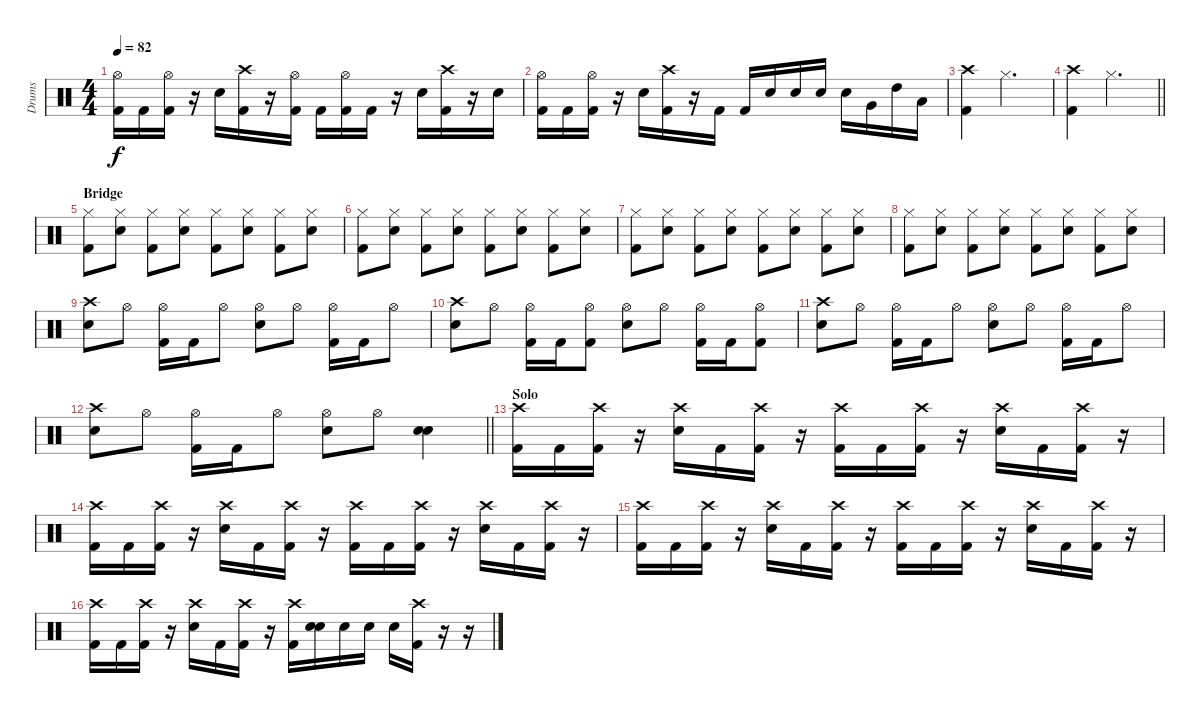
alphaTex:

\track ("Drums" "Drums") {instrument percussion}
\staff {score}
\articulation defaults
\ts (4 4)
\tempo 82
\clef neutral
\ks c
("Hi-Hat (open)" "Kick (hit) 2").16{dy f} "Kick (hit) 2".16 ("Hi-Hat (open)" "Kick (hit) 2").16 r.16 "Electric Snare (hit)".16 ("Crash high (hit)" "Kick (hit) 2").16 r.16 ("Hi-Hat (open)" "Kick (hit) 2").16 "Kick (hit) 2".16 ("Hi-Hat (open)" "Kick (hit) 2").16 "Kick (hit) 2".16 r.16 "Electric Snare (hit)".16 ("Crash high (hit)" "Kick (hit) 2").16 r.16 "Electric Snare (hit)".16 |
("Hi-Hat (open)" "Kick (hit) 2").16 "Kick (hit) 2".16 ("Hi-Hat (open)" "Kick (hit) 2").16 r.16 "Electric Snare (hit)".16 ("Crash high (hit)" "Kick (hit) 2").16 r.16 "Kick (hit) 2".16 "Kick (hit) 2".16 "Electric Snare (hit)".16 "Electric Snare (hit)".16 "Electric Snare (hit)".16 "Electric Snare (hit)".16 "Very Low Tom (hit)".16 "High Tom (hit)".16 "Low Floor Tom (hit)".16 |
("Crash high (hit)" "Kick (hit) 2").4 "Hi-Hat (closed)".2{d} |
\barLineRight lightlight
("Crash high (hit)" "Kick (hit) 2").4 "Hi-Hat (closed)".2{d} |
\section ("" "Bridge")
("Hi-Hat (closed)" "Kick (hit) 2").8 ("Hi-Hat (closed)" "Electric Snare (hit)").8 ("Hi-Hat (closed)" "Kick (hit) 2").8 ("Hi-Hat (closed)" "Electric Snare (hit)").8 ("Hi-Hat (closed)" "Kick (hit) 2").8 ("Hi-Hat (closed)" "Electric Snare (hit)").8 ("Hi-Hat (closed)" "Kick (hit) 2").8 ("Hi-Hat (closed)" "Electric Snare (hit)").8 |
("Hi-Hat (closed)" "Kick (hit) 2").8 ("Hi-Hat (closed)" "Electric Snare (hit)").8 ("Hi-Hat (closed)" "Kick (hit) 2").8 ("Hi-Hat (closed)" "Electric Snare (hit)").8 ("Hi-Hat (closed)" "Kick (hit) 2").8 ("Hi-Hat (closed)" "Electric Snare (hit)").8 ("Hi-Hat (closed)" "Kick (hit) 2").8 ("Hi-Hat (closed)" "Electric Snare (hit)").8 |
("Hi-Hat (closed)" "Kick (hit) 2").8 ("Hi-Hat (closed)" "Electric Snare (hit)").8 ("Hi-Hat (closed)" "Kick (hit) 2").8 ("Hi-Hat (closed)" "Electric Snare (hit)").8 ("Hi-Hat (closed)" "Kick (hit) 2").8 ("Hi-Hat (closed)" "Electric Snare (hit)").8 ("Hi-Hat (closed)" "Kick (hit) 2").8 ("Hi-Hat (closed)" "Electric Snare (hit)").8 |
("Hi-Hat (closed)" "Kick (hit) 2").8 ("Hi-Hat (closed)" "Electric Snare (hit)").8 ("Hi-Hat (closed)" "Kick (hit) 2").8 ("Hi-Hat (closed)" "Electric Snare (hit)").8 ("Hi-Hat (closed)" "Kick (hit) 2").8 ("Hi-Hat (closed)" "Electric Snare (hit)").8 ("Hi-Hat (closed)" "Kick (hit) 2").8 ("Hi-Hat (closed)" "Electric Snare (hit)").8 |
("Crash high (hit)" "Electric Snare (hit)").8 "Hi-Hat (open)".8 ("Hi-Hat (open)" "Kick (hit) 2").16 "Kick (hit) 2".16 "Hi-Hat (open)".8 ("Hi-Hat (open)" "Electric Snare (hit)").8 "Hi-Hat (open)".8 ("Hi-Hat (open)" "Kick (hit) 2").16 "Kick (hit) 2".16 "Hi-Hat (open)".8 |
("Crash high (hit)" "Electric Snare (hit)").8 "Hi-Hat (open)".8 ("Hi-Hat (open)" "Kick (hit) 2").16 "Kick (hit) 2".16 ("Hi-Hat (open)" "Kick (hit) 2").8 ("Hi-Hat (open)" "Electric Snare (hit)").8 "Hi-Hat (open)".8 ("Hi-Hat (open)" "Kick (hit) 2").16 "Kick (hit) 2".16 ("Hi-Hat (open)" "Kick (hit) 2").8 |
("Crash high (hit)" "Electric Snare (hit)").8 "Hi-Hat (open)".8 ("Hi-Hat (open)" "Kick (hit) 2").16 "Kick (hit) 2".16 "Hi-Hat (open)".8 ("Hi-Hat (open)" "Electric Snare (hit)").8 "Hi-Hat (open)".8 ("Hi-Hat (open)" "Kick (hit) 2").16 "Kick (hit) 2".16 "Hi-Hat (open)".8 |
\barLineRight lightlight
("Crash high (hit)" "Electric Snare (hit)").8 "Hi-Hat (open)".8 ("Hi-Hat (open)" "Kick (hit) 2").16 "Kick (hit) 2".16 "Hi-Hat (open)".8 ("Hi-Hat (open)" "Electric Snare (hit)").8 "Hi-Hat (open)".8 ("Electric Snare (hit)" "Electric Snare (hit)").4 |
\section ("" "Solo")
("Crash high (hit)" "Kick (hit) 2").16 "Kick (hit) 2".16 ("Crash high (hit)" "Kick (hit) 2").16 r.16 ("Crash high (hit)" "Electric Snare (hit)").16 "Kick (hit) 2".16 ("Crash high (hit)" "Kick (hit) 2").16 r.16 ("Crash high (hit)" "Kick (hit) 2").16 "Kick (hit) 2".16 ("Crash high (hit)" "Kick (hit) 2").16 r.16 ("Crash high (hit)" "Electric Snare (hit)").16 "Kick (hit) 2".16 ("Crash high (hit)" "Kick (hit) 2").16 r.16 |
("Crash high (hit)" "Kick (hit) 2").16 "Kick (hit) 2".16 ("Crash high (hit)" "Kick (hit) 2").16 r.16 ("Crash high (hit)" "Electric Snare (hit)").16 "Kick (hit) 2".16 ("Crash high (hit)" "Kick (hit) 2").16 r.16 ("Crash high (hit)" "Kick (hit) 2").16 "Kick (hit) 2".16 ("Crash high (hit)" "Kick (hit) 2").16 r.16 ("Crash high (hit)" "Electric Snare (hit)").16 "Kick (hit) 2".16 ("Crash high (hit)" "Kick (hit) 2").16 r.16 |
("Crash high (hit)" "Kick (hit) 2").16 "Kick (hit) 2".16 ("Crash high (hit)" "Kick (hit) 2").16 r.16 ("Crash high (hit)" "Electric Snare (hit)").16 "Kick (hit) 2".16 ("Crash high (hit)" "Kick (hit) 2").16 r.16 ("Crash high (hit)" "Kick (hit) 2").16 "Kick (hit) 2".16 ("Crash high (hit)" "Kick (hit) 2").16 r.16 ("Crash high (hit)" "Electric Snare (hit)").16 "Kick (hit) 2".16 ("Crash high (hit)" "Kick (hit) 2").16 r.16 |
("Crash high (hit)" "Kick (hit) 2").16 "Kick (hit) 2".16 ("Crash high (hit)" "Kick (hit) 2").16 r.16 ("Crash high (hit)" "Electric Snare (hit)").16 "Kick (hit) 2".16 ("Crash high (hit)" "Kick (hit) 2").16 r.16 ("Crash high (hit)" "Kick (hit) 2").16 ("Electric Snare (hit)" "Electric Snare (hit)").16 "Electric Snare (hit)".16 "Electric Snare (hit)".16 "Electric Snare (hit)".16 ("Crash high (hit)" "Kick (hit) 2").16 r.16 r.16
